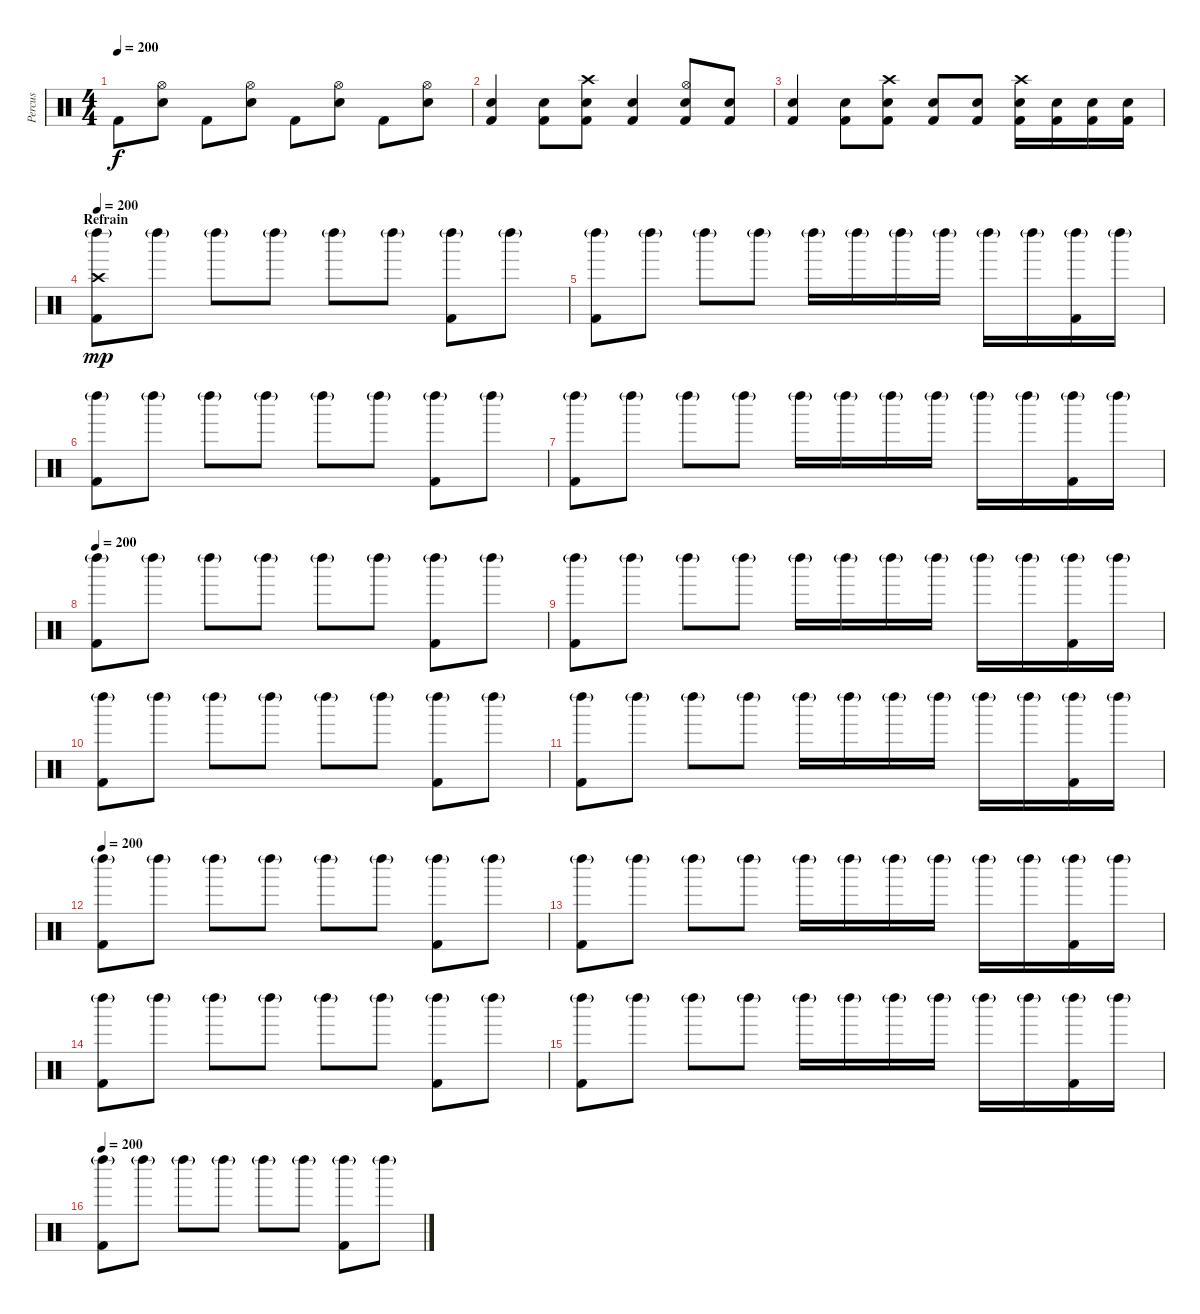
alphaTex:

\track ("Percus" "Percus") {instrument percussion}
\staff {score}
\articulation defaults
\ts (4 4)
\tempo 200
\clef neutral
\ks c "Kick (hit) 2".8{dy f}
("Hi-Hat (open)" "Snare (hit) 2").8 "Kick (hit) 2".8 ("Hi-Hat (open)" "Snare (hit) 2").8 "Kick (hit) 2".8 ("Hi-Hat (open)" "Snare (hit) 2").8 "Kick (hit) 2".8 ("Hi-Hat (open)" "Snare (hit) 2").8 |
("Snare (hit) 2" "Kick (hit) 2").4 ("Snare (hit) 2" "Kick (hit) 2").8 ("Crash high (hit)" "Snare (hit) 2" "Kick (hit) 2").8 ("Snare (hit) 2" "Kick (hit) 2").4 ("Hi-Hat (open)" "Snare (hit) 2" "Kick (hit) 2").8 ("Snare (hit) 2" "Kick (hit) 2").8 |
("Snare (hit) 2" "Kick (hit) 2").4 ("Snare (hit) 2" "Kick (hit) 2").8 ("Crash high (hit)" "Snare (hit) 2" "Kick (hit) 2").8 ("Snare (hit) 2" "Kick (hit) 2").8 ("Snare (hit) 2" "Kick (hit) 2").8 ("Crash high (hit)" "Snare (hit) 2" "Kick (hit) 2").16 ("Snare (hit) 2" "Kick (hit) 2").16 ("Snare (hit) 2" "Kick (hit) 2").16 ("Snare (hit) 2" "Kick (hit) 2").16 |
\section ("" "Refrain")
\tempo 200
("Left Maraca (hit)"{g} "Crash high (hit)" "Kick (hit) 2").8{dy mp} "Left Maraca (hit)"{g}.8 "Left Maraca (hit)"{g}.8 "Left Maraca (hit)"{g}.8 "Left Maraca (hit)"{g}.8 "Left Maraca (hit)"{g}.8 ("Left Maraca (hit)"{g} "Kick (hit) 2").8 "Left Maraca (hit)"{g}.8 |
("Left Maraca (hit)"{g} "Kick (hit) 2").8 "Left Maraca (hit)"{g}.8 "Left Maraca (hit)"{g}.8 "Left Maraca (hit)"{g}.8 "Left Maraca (hit)"{g}.16 "Left Maraca (hit)"{g}.16 "Left Maraca (hit)"{g}.16 "Left Maraca (hit)"{g}.16 "Left Maraca (hit)"{g}.16 "Left Maraca (hit)"{g}.16 ("Left Maraca (hit)"{g} "Kick (hit) 2").16 "Left Maraca (hit)"{g}.16 |
("Left Maraca (hit)"{g} "Kick (hit) 2").8 "Left Maraca (hit)"{g}.8 "Left Maraca (hit)"{g}.8 "Left Maraca (hit)"{g}.8 "Left Maraca (hit)"{g}.8 "Left Maraca (hit)"{g}.8 ("Left Maraca (hit)"{g} "Kick (hit) 2").8 "Left Maraca (hit)"{g}.8 |
("Left Maraca (hit)"{g} "Kick (hit) 2").8 "Left Maraca (hit)"{g}.8 "Left Maraca (hit)"{g}.8 "Left Maraca (hit)"{g}.8 "Left Maraca (hit)"{g}.16 "Left Maraca (hit)"{g}.16 "Left Maraca (hit)"{g}.16 "Left Maraca (hit)"{g}.16 "Left Maraca (hit)"{g}.16 "Left Maraca (hit)"{g}.16 ("Left Maraca (hit)"{g} "Kick (hit) 2").16 "Left Maraca (hit)"{g}.16 |
\tempo 200
("Left Maraca (hit)"{g} "Kick (hit) 2").8 "Left Maraca (hit)"{g}.8 "Left Maraca (hit)"{g}.8 "Left Maraca (hit)"{g}.8 "Left Maraca (hit)"{g}.8 "Left Maraca (hit)"{g}.8 ("Left Maraca (hit)"{g} "Kick (hit) 2").8 "Left Maraca (hit)"{g}.8 |
("Left Maraca (hit)"{g} "Kick (hit) 2").8 "Left Maraca (hit)"{g}.8 "Left Maraca (hit)"{g}.8 "Left Maraca (hit)"{g}.8 "Left Maraca (hit)"{g}.16 "Left Maraca (hit)"{g}.16 "Left Maraca (hit)"{g}.16 "Left Maraca (hit)"{g}.16 "Left Maraca (hit)"{g}.16 "Left Maraca (hit)"{g}.16 ("Left Maraca (hit)"{g} "Kick (hit) 2").16 "Left Maraca (hit)"{g}.16 |
("Left Maraca (hit)"{g} "Kick (hit) 2").8 "Left Maraca (hit)"{g}.8 "Left Maraca (hit)"{g}.8 "Left Maraca (hit)"{g}.8 "Left Maraca (hit)"{g}.8 "Left Maraca (hit)"{g}.8 ("Left Maraca (hit)"{g} "Kick (hit) 2").8 "Left Maraca (hit)"{g}.8 |
("Left Maraca (hit)"{g} "Kick (hit) 2").8 "Left Maraca (hit)"{g}.8 "Left Maraca (hit)"{g}.8 "Left Maraca (hit)"{g}.8 "Left Maraca (hit)"{g}.16 "Left Maraca (hit)"{g}.16 "Left Maraca (hit)"{g}.16 "Left Maraca (hit)"{g}.16 "Left Maraca (hit)"{g}.16 "Left Maraca (hit)"{g}.16 ("Left Maraca (hit)"{g} "Kick (hit) 2").16 "Left Maraca (hit)"{g}.16 |
\tempo 200
("Left Maraca (hit)"{g} "Kick (hit) 2").8 "Left Maraca (hit)"{g}.8 "Left Maraca (hit)"{g}.8 "Left Maraca (hit)"{g}.8 "Left Maraca (hit)"{g}.8 "Left Maraca (hit)"{g}.8 ("Left Maraca (hit)"{g} "Kick (hit) 2").8 "Left Maraca (hit)"{g}.8 |
("Left Maraca (hit)"{g} "Kick (hit) 2").8 "Left Maraca (hit)"{g}.8 "Left Maraca (hit)"{g}.8 "Left Maraca (hit)"{g}.8 "Left Maraca (hit)"{g}.16 "Left Maraca (hit)"{g}.16 "Left Maraca (hit)"{g}.16 "Left Maraca (hit)"{g}.16 "Left Maraca (hit)"{g}.16 "Left Maraca (hit)"{g}.16 ("Left Maraca (hit)"{g} "Kick (hit) 2").16 "Left Maraca (hit)"{g}.16 |
("Left Maraca (hit)"{g} "Kick (hit) 2").8 "Left Maraca (hit)"{g}.8 "Left Maraca (hit)"{g}.8 "Left Maraca (hit)"{g}.8 "Left Maraca (hit)"{g}.8 "Left Maraca (hit)"{g}.8 ("Left Maraca (hit)"{g} "Kick (hit) 2").8 "Left Maraca (hit)"{g}.8 |
("Left Maraca (hit)"{g} "Kick (hit) 2").8 "Left Maraca (hit)"{g}.8 "Left Maraca (hit)"{g}.8 "Left Maraca (hit)"{g}.8 "Left Maraca (hit)"{g}.16 "Left Maraca (hit)"{g}.16 "Left Maraca (hit)"{g}.16 "Left Maraca (hit)"{g}.16 "Left Maraca (hit)"{g}.16 "Left Maraca (hit)"{g}.16 ("Left Maraca (hit)"{g} "Kick (hit) 2").16 "Left Maraca (hit)"{g}.16 |
\tempo 200
("Left Maraca (hit)"{g} "Kick (hit) 2").8 "Left Maraca (hit)"{g}.8 "Left Maraca (hit)"{g}.8 "Left Maraca (hit)"{g}.8 "Left Maraca (hit)"{g}.8 "Left Maraca (hit)"{g}.8 ("Left Maraca (hit)"{g} "Kick (hit) 2").8 "Left Maraca (hit)"{g}.8
